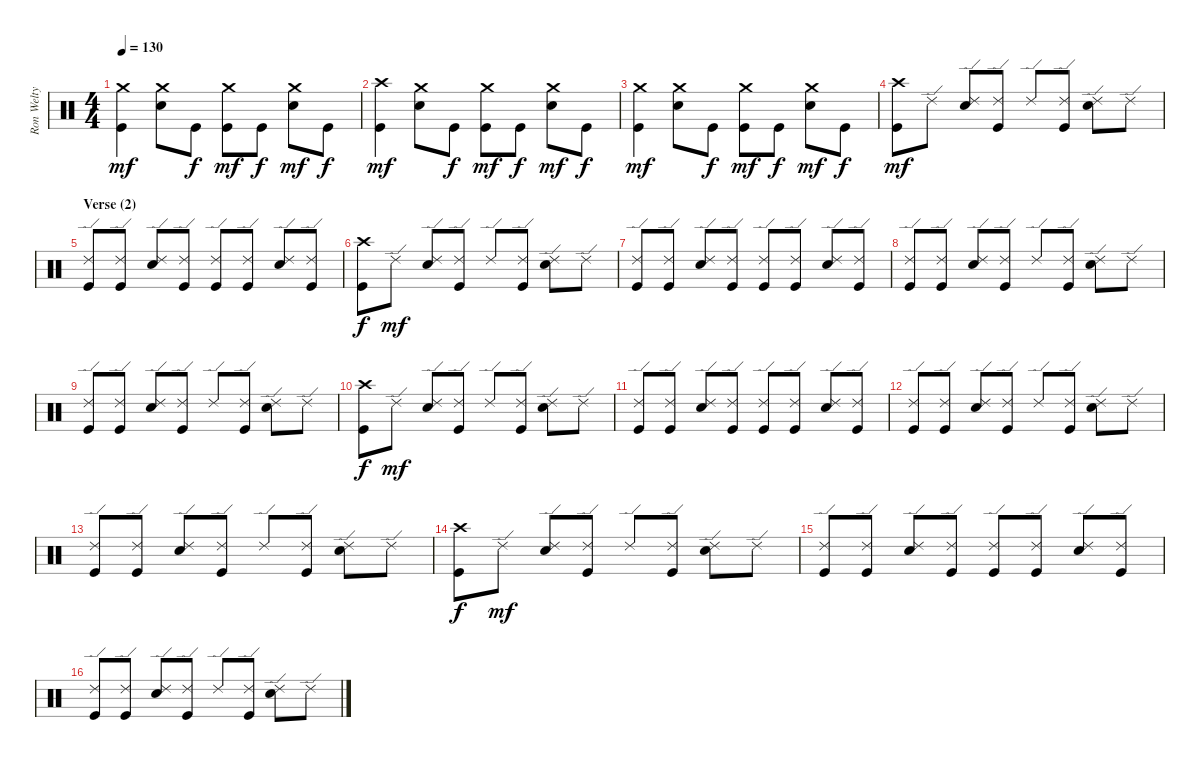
\track ("Ron Welty" "Ron Welty") {instrument percussion}
\staff {score}
\articulation defaults
\ts (4 4)
\tempo 130
\clef neutral
\ks c
("Kick (hit)" "Crash medium (hit)").4{dy mf} ("Electric Snare (hit)" "Crash medium (hit)").8 "Kick (hit)".8{dy f} ("Kick (hit)" "Crash medium (hit)").8{dy mf} "Kick (hit)".8{dy f} ("Electric Snare (hit)" "Crash medium (hit)").8{dy mf} "Kick (hit)".8{dy f} |
("Kick (hit)" "Crash high (hit)").4{dy mf} ("Electric Snare (hit)" "Crash medium (hit)").8 "Kick (hit)".8{dy f} ("Kick (hit)" "Crash medium (hit)").8{dy mf} "Kick (hit)".8{dy f} ("Electric Snare (hit)" "Crash medium (hit)").8{dy mf} "Kick (hit)".8{dy f} |
("Kick (hit)" "Crash medium (hit)").4{dy mf} ("Electric Snare (hit)" "Crash medium (hit)").8 "Kick (hit)".8{dy f} ("Kick (hit)" "Crash medium (hit)").8{dy mf} "Kick (hit)".8{dy f} ("Electric Snare (hit)" "Crash medium (hit)").8{dy mf} "Kick (hit)".8{dy f} |
("Kick (hit)" "Crash high (hit)").8{dy mf} "Ride (edge) 2".8 ("Electric Snare (hit)" "Ride (edge) 2").8 ("Kick (hit)" "Ride (edge) 2").8 "Ride (edge) 2".8 ("Kick (hit)" "Ride (edge) 2").8 ("Electric Snare (hit)" "Ride (edge) 2").8 "Ride (edge) 2".8 |
\section ("" "Verse (2)")
("Kick (hit)" "Ride (edge) 2").8 ("Kick (hit)" "Ride (edge) 2").8 ("Electric Snare (hit)" "Ride (edge) 2").8 ("Kick (hit)" "Ride (edge) 2").8 ("Kick (hit)" "Ride (edge) 2").8 ("Kick (hit)" "Ride (edge) 2").8 ("Electric Snare (hit)" "Ride (edge) 2").8 ("Kick (hit)" "Ride (edge) 2").8 |
("Kick (hit)" "Crash high (hit)").8{dy f} "Ride (edge) 2".8{dy mf} ("Electric Snare (hit)" "Ride (edge) 2").8 ("Kick (hit)" "Ride (edge) 2").8 "Ride (edge) 2".8 ("Kick (hit)" "Ride (edge) 2").8 ("Electric Snare (hit)" "Ride (edge) 2").8 "Ride (edge) 2".8 |
("Kick (hit)" "Ride (edge) 2").8 ("Kick (hit)" "Ride (edge) 2").8 ("Electric Snare (hit)" "Ride (edge) 2").8 ("Kick (hit)" "Ride (edge) 2").8 ("Kick (hit)" "Ride (edge) 2").8 ("Kick (hit)" "Ride (edge) 2").8 ("Electric Snare (hit)" "Ride (edge) 2").8 ("Kick (hit)" "Ride (edge) 2").8 |
("Kick (hit)" "Ride (edge) 2").8 ("Kick (hit)" "Ride (edge) 2").8 ("Electric Snare (hit)" "Ride (edge) 2").8 ("Kick (hit)" "Ride (edge) 2").8 "Ride (edge) 2".8 ("Kick (hit)" "Ride (edge) 2").8 ("Electric Snare (hit)" "Ride (edge) 2").8 "Ride (edge) 2".8 |
("Kick (hit)" "Ride (edge) 2").8 ("Kick (hit)" "Ride (edge) 2").8 ("Electric Snare (hit)" "Ride (edge) 2").8 ("Kick (hit)" "Ride (edge) 2").8 "Ride (edge) 2".8 ("Kick (hit)" "Ride (edge) 2").8 ("Electric Snare (hit)" "Ride (edge) 2").8 "Ride (edge) 2".8 |
("Kick (hit)" "Crash high (hit)").8{dy f} "Ride (edge) 2".8{dy mf} ("Electric Snare (hit)" "Ride (edge) 2").8 ("Kick (hit)" "Ride (edge) 2").8 "Ride (edge) 2".8 ("Kick (hit)" "Ride (edge) 2").8 ("Electric Snare (hit)" "Ride (edge) 2").8 "Ride (edge) 2".8 |
("Kick (hit)" "Ride (edge) 2").8 ("Kick (hit)" "Ride (edge) 2").8 ("Electric Snare (hit)" "Ride (edge) 2").8 ("Kick (hit)" "Ride (edge) 2").8 ("Kick (hit)" "Ride (edge) 2").8 ("Kick (hit)" "Ride (edge) 2").8 ("Electric Snare (hit)" "Ride (edge) 2").8 ("Kick (hit)" "Ride (edge) 2").8 |
("Kick (hit)" "Ride (edge) 2").8 ("Kick (hit)" "Ride (edge) 2").8 ("Electric Snare (hit)" "Ride (edge) 2").8 ("Kick (hit)" "Ride (edge) 2").8 "Ride (edge) 2".8 ("Kick (hit)" "Ride (edge) 2").8 ("Electric Snare (hit)" "Ride (edge) 2").8 "Ride (edge) 2".8 |
("Kick (hit)" "Ride (edge) 2").8 ("Kick (hit)" "Ride (edge) 2").8 ("Electric Snare (hit)" "Ride (edge) 2").8 ("Kick (hit)" "Ride (edge) 2").8 "Ride (edge) 2".8 ("Kick (hit)" "Ride (edge) 2").8 ("Electric Snare (hit)" "Ride (edge) 2").8 "Ride (edge) 2".8 |
("Kick (hit)" "Crash high (hit)").8{dy f} "Ride (edge) 2".8{dy mf} ("Electric Snare (hit)" "Ride (edge) 2").8 ("Kick (hit)" "Ride (edge) 2").8 "Ride (edge) 2".8 ("Kick (hit)" "Ride (edge) 2").8 ("Electric Snare (hit)" "Ride (edge) 2").8 "Ride (edge) 2".8 |
("Kick (hit)" "Ride (edge) 2").8 ("Kick (hit)" "Ride (edge) 2").8 ("Electric Snare (hit)" "Ride (edge) 2").8 ("Kick (hit)" "Ride (edge) 2").8 ("Kick (hit)" "Ride (edge) 2").8 ("Kick (hit)" "Ride (edge) 2").8 ("Electric Snare (hit)" "Ride (edge) 2").8 ("Kick (hit)" "Ride (edge) 2").8 |
("Kick (hit)" "Ride (edge) 2").8 ("Kick (hit)" "Ride (edge) 2").8 ("Electric Snare (hit)" "Ride (edge) 2").8 ("Kick (hit)" "Ride (edge) 2").8 "Ride (edge) 2".8 ("Kick (hit)" "Ride (edge) 2").8 ("Electric Snare (hit)" "Ride (edge) 2").8 "Ride (edge) 2".8
